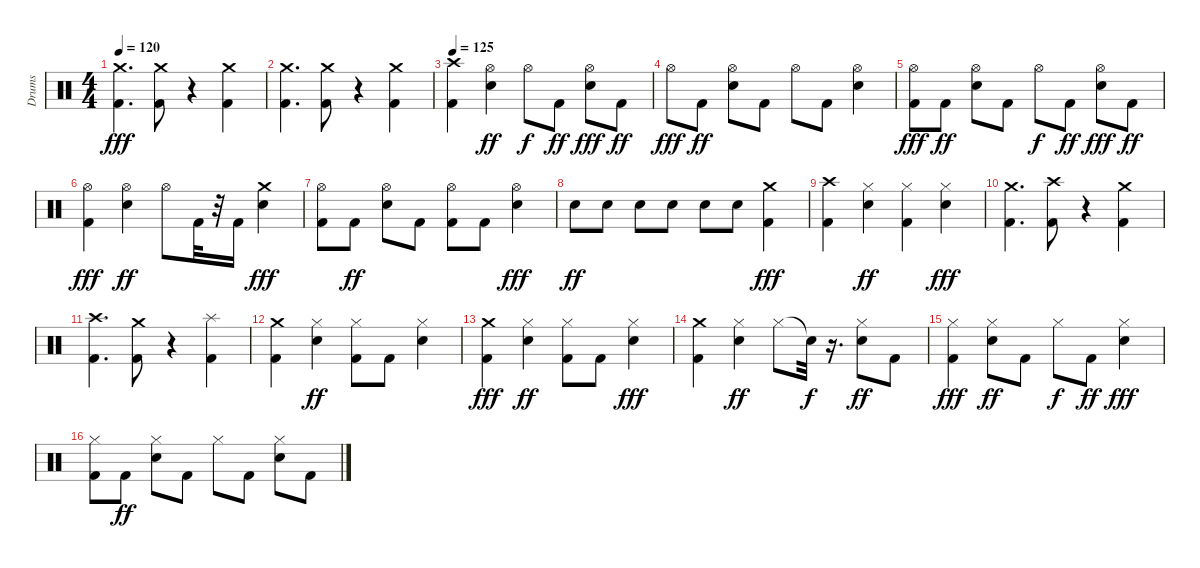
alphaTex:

\track ("Drums" "Drums") {instrument percussion}
\staff {score}
\articulation defaults
\ts (4 4)
\tempo 120
\clef neutral
\ks c
("Kick (hit) 2" "Crash medium (hit)").4{d dy fff} ("Kick (hit) 2" "Crash medium (hit)").8 r.4 ("Kick (hit) 2" "Crash medium (hit)").4 |
("Kick (hit) 2" "Crash medium (hit)").4{d} ("Kick (hit) 2" "Crash medium (hit)").8 r.4 ("Kick (hit) 2" "Crash medium (hit)").4 |
\tempo 125
("Kick (hit) 2" "Crash high (hit)").4 ("Electric Snare (hit)" "Hi-Hat (open)").4{dy ff} "Hi-Hat (open)".8{dy f} "Kick (hit) 2".8{dy ff} ("Electric Snare (hit)" "Hi-Hat (open)").8{dy fff} "Kick (hit) 2".8{dy ff} |
"Hi-Hat (open)".8{dy fff} "Kick (hit) 2".8{dy ff} ("Electric Snare (hit)" "Hi-Hat (open)").8 "Kick (hit) 2".8 "Hi-Hat (open)".8 "Kick (hit) 2".8 ("Electric Snare (hit)" "Hi-Hat (open)").4 |
("Kick (hit) 2" "Hi-Hat (open)").8{dy fff} "Kick (hit) 2".8{dy ff} ("Electric Snare (hit)" "Hi-Hat (open)").8 "Kick (hit) 2".8 "Hi-Hat (open)".8{dy f} "Kick (hit) 2".8{dy ff} ("Electric Snare (hit)" "Hi-Hat (open)").8{dy fff} "Kick (hit) 2".8{dy ff} |
("Kick (hit) 2" "Hi-Hat (open)").4{dy fff} ("Electric Snare (hit)" "Hi-Hat (open)").4{dy ff} "Hi-Hat (open)".8 "Kick (hit) 2".32 r.32 "Kick (hit) 2".16 ("Electric Snare (hit)" "Crash medium (hit)").4{dy fff} |
("Kick (hit) 2" "Hi-Hat (open)").8 "Kick (hit) 2".8{dy ff} ("Electric Snare (hit)" "Hi-Hat (open)").8 "Kick (hit) 2".8 ("Kick (hit) 2" "Hi-Hat (open)").8 "Kick (hit) 2".8 ("Electric Snare (hit)" "Hi-Hat (open)").4{dy fff} |
"Electric Snare (hit)".8{dy ff} "Electric Snare (hit)".8 "Electric Snare (hit)".8 "Electric Snare (hit)".8 "Electric Snare (hit)".8 "Electric Snare (hit)".8 ("Kick (hit) 2" "Crash medium (hit)").4{dy fff} |
("Kick (hit) 2" "Crash high (hit)").4 ("Electric Snare (hit)" "Hi-Hat (closed)").4{dy ff} ("Kick (hit) 2" "Hi-Hat (closed)").4 ("Electric Snare (hit)" "Hi-Hat (closed)").4{dy fff} |
("Kick (hit) 2" "Crash medium (hit)").4{d} ("Kick (hit) 2" "Crash high (hit)").8 r.4 ("Kick (hit) 2" "Crash medium (hit)").4 |
("Kick (hit) 2" "Crash high (hit)").4{d} ("Kick (hit) 2" "Crash medium (hit)").8 r.4 ("Kick (hit) 2" "Splash (hit)").4 |
("Kick (hit) 2" "Crash medium (hit)").4 ("Electric Snare (hit)" "Hi-Hat (closed)").4{dy ff} ("Kick (hit) 2" "Hi-Hat (closed)").8 "Kick (hit) 2".8 ("Electric Snare (hit)" "Hi-Hat (closed)").4 |
("Kick (hit) 2" "Crash medium (hit)").4{dy fff} ("Electric Snare (hit)" "Hi-Hat (closed)").4{dy ff} ("Kick (hit) 2" "Hi-Hat (closed)").8 "Kick (hit) 2".8 ("Electric Snare (hit)" "Hi-Hat (closed)").4{dy fff} |
("Kick (hit) 2" "Crash medium (hit)").4 ("Electric Snare (hit)" "Hi-Hat (closed)").4{dy ff} "Hi-Hat (closed)".8 "Snare (hit)"{t}.32{dy f} r.16{d} ("Electric Snare (hit)" "Hi-Hat (closed)").8{dy ff} "Kick (hit) 2".8 |
("Kick (hit) 2" "Hi-Hat (closed)").4{dy fff} ("Electric Snare (hit)" "Hi-Hat (closed)").8{dy ff} "Kick (hit) 2".8 "Hi-Hat (closed)".8{dy f} "Kick (hit) 2".8{dy ff} ("Electric Snare (hit)" "Hi-Hat (closed)").4{dy fff} |
("Kick (hit) 2" "Hi-Hat (closed)").8 "Kick (hit) 2".8{dy ff} ("Electric Snare (hit)" "Hi-Hat (closed)").8 "Kick (hit) 2".8 "Hi-Hat (closed)".8 "Kick (hit) 2".8 ("Electric Snare (hit)" "Hi-Hat (closed)").8 "Kick (hit) 2".8
